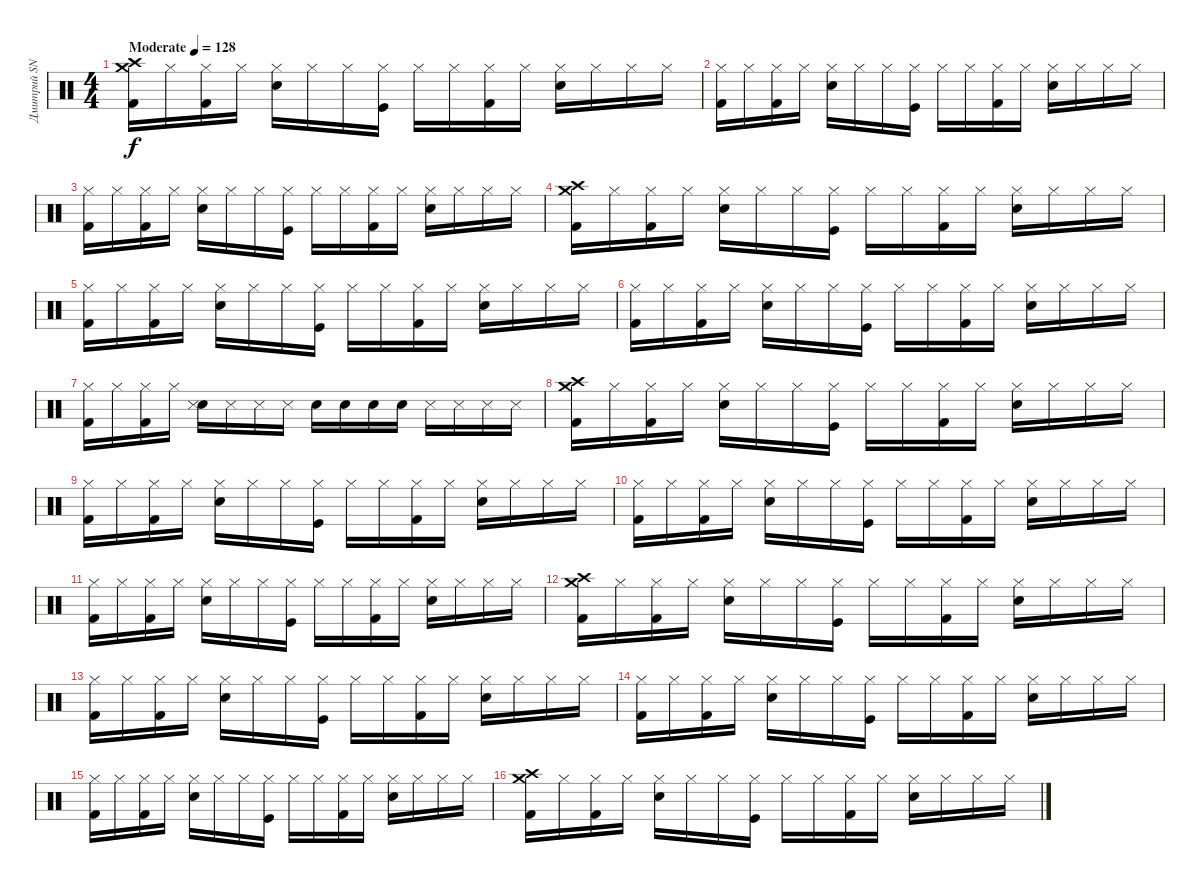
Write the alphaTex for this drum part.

\track ("Дмитрий SNAKE Хакимов (ударные)" "Дмитрий SN") {instrument percussion}
\staff {score}
\articulation defaults
\ts (4 4)
\tempo (128 "Moderate")
\clef neutral
\ks c
("Crash high (hit)" "Crash medium (hit)" "Kick (hit) 2").16{dy f} "Hi-Hat (closed)".16 ("Hi-Hat (closed)" "Kick (hit) 2").16 "Hi-Hat (closed)".16 ("Hi-Hat (closed)" "Snare (hit) 2").16 "Hi-Hat (closed)".16 "Hi-Hat (closed)".16 ("Hi-Hat (closed)" "Kick (hit)").16 "Hi-Hat (closed)".16 "Hi-Hat (closed)".16 ("Hi-Hat (closed)" "Kick (hit) 2").16 "Hi-Hat (closed)".16 ("Hi-Hat (closed)" "Snare (hit) 2").16 "Hi-Hat (closed)".16 "Hi-Hat (closed)".16 "Hi-Hat (closed)".16 |
("Hi-Hat (closed)" "Kick (hit) 2").16 "Hi-Hat (closed)".16 ("Hi-Hat (closed)" "Kick (hit) 2").16 "Hi-Hat (closed)".16 ("Hi-Hat (closed)" "Snare (hit) 2").16 "Hi-Hat (closed)".16 "Hi-Hat (closed)".16 ("Hi-Hat (closed)" "Kick (hit)").16 "Hi-Hat (closed)".16 "Hi-Hat (closed)".16 ("Hi-Hat (closed)" "Kick (hit) 2").16 "Hi-Hat (closed)".16 ("Hi-Hat (closed)" "Snare (hit) 2").16 "Hi-Hat (closed)".16 "Hi-Hat (closed)".16 "Hi-Hat (closed)".16 |
("Hi-Hat (closed)" "Kick (hit) 2").16 "Hi-Hat (closed)".16 ("Hi-Hat (closed)" "Kick (hit) 2").16 "Hi-Hat (closed)".16 ("Hi-Hat (closed)" "Snare (hit) 2").16 "Hi-Hat (closed)".16 "Hi-Hat (closed)".16 ("Hi-Hat (closed)" "Kick (hit)").16 "Hi-Hat (closed)".16 "Hi-Hat (closed)".16 ("Hi-Hat (closed)" "Kick (hit) 2").16 "Hi-Hat (closed)".16 ("Hi-Hat (closed)" "Snare (hit) 2").16 "Hi-Hat (closed)".16 "Hi-Hat (closed)".16 "Hi-Hat (closed)".16 |
("Crash high (hit)" "Crash medium (hit)" "Kick (hit) 2").16 "Hi-Hat (closed)".16 ("Hi-Hat (closed)" "Kick (hit) 2").16 "Hi-Hat (closed)".16 ("Hi-Hat (closed)" "Snare (hit) 2").16 "Hi-Hat (closed)".16 "Hi-Hat (closed)".16 ("Hi-Hat (closed)" "Kick (hit)").16 "Hi-Hat (closed)".16 "Hi-Hat (closed)".16 ("Hi-Hat (closed)" "Kick (hit) 2").16 "Hi-Hat (closed)".16 ("Hi-Hat (closed)" "Snare (hit) 2").16 "Hi-Hat (closed)".16 "Hi-Hat (closed)".16 "Hi-Hat (closed)".16 |
("Hi-Hat (closed)" "Kick (hit) 2").16 "Hi-Hat (closed)".16 ("Hi-Hat (closed)" "Kick (hit) 2").16 "Hi-Hat (closed)".16 ("Hi-Hat (closed)" "Snare (hit) 2").16 "Hi-Hat (closed)".16 "Hi-Hat (closed)".16 ("Hi-Hat (closed)" "Kick (hit)").16 "Hi-Hat (closed)".16 "Hi-Hat (closed)".16 ("Hi-Hat (closed)" "Kick (hit) 2").16 "Hi-Hat (closed)".16 ("Hi-Hat (closed)" "Snare (hit) 2").16 "Hi-Hat (closed)".16 "Hi-Hat (closed)".16 "Hi-Hat (closed)".16 |
("Hi-Hat (closed)" "Kick (hit) 2").16 "Hi-Hat (closed)".16 ("Hi-Hat (closed)" "Kick (hit) 2").16 "Hi-Hat (closed)".16 ("Hi-Hat (closed)" "Snare (hit) 2").16 "Hi-Hat (closed)".16 "Hi-Hat (closed)".16 ("Hi-Hat (closed)" "Kick (hit)").16 "Hi-Hat (closed)".16 "Hi-Hat (closed)".16 ("Hi-Hat (closed)" "Kick (hit) 2").16 "Hi-Hat (closed)".16 ("Hi-Hat (closed)" "Snare (hit) 2").16 "Hi-Hat (closed)".16 "Hi-Hat (closed)".16 "Hi-Hat (closed)".16 |
("Hi-Hat (closed)" "Kick (hit) 2").16 "Hi-Hat (closed)".16 ("Hi-Hat (closed)" "Kick (hit) 2").16 "Hi-Hat (closed)".16 ("Snare (hit) 2" "Snare (side stick) 3").16 "Snare (side stick) 3".16 "Snare (side stick) 3".16 "Snare (side stick) 3".16 "Electric Snare (hit)".16 "Electric Snare (hit)".16 "Electric Snare (hit)".16 "Electric Snare (hit)".16 "Snare (side stick) 3".16 "Snare (side stick) 3".16 "Snare (side stick) 3".16 "Snare (side stick) 3".16 |
("Crash high (hit)" "Crash medium (hit)" "Kick (hit) 2").16 "Hi-Hat (closed)".16 ("Hi-Hat (closed)" "Kick (hit) 2").16 "Hi-Hat (closed)".16 ("Hi-Hat (closed)" "Snare (hit) 2").16 "Hi-Hat (closed)".16 "Hi-Hat (closed)".16 ("Hi-Hat (closed)" "Kick (hit)").16 "Hi-Hat (closed)".16 "Hi-Hat (closed)".16 ("Hi-Hat (closed)" "Kick (hit) 2").16 "Hi-Hat (closed)".16 ("Hi-Hat (closed)" "Snare (hit) 2").16 "Hi-Hat (closed)".16 "Hi-Hat (closed)".16 "Hi-Hat (closed)".16 |
("Hi-Hat (closed)" "Kick (hit) 2").16 "Hi-Hat (closed)".16 ("Hi-Hat (closed)" "Kick (hit) 2").16 "Hi-Hat (closed)".16 ("Hi-Hat (closed)" "Snare (hit) 2").16 "Hi-Hat (closed)".16 "Hi-Hat (closed)".16 ("Hi-Hat (closed)" "Kick (hit)").16 "Hi-Hat (closed)".16 "Hi-Hat (closed)".16 ("Hi-Hat (closed)" "Kick (hit) 2").16 "Hi-Hat (closed)".16 ("Hi-Hat (closed)" "Snare (hit) 2").16 "Hi-Hat (closed)".16 "Hi-Hat (closed)".16 "Hi-Hat (closed)".16 |
("Hi-Hat (closed)" "Kick (hit) 2").16 "Hi-Hat (closed)".16 ("Hi-Hat (closed)" "Kick (hit) 2").16 "Hi-Hat (closed)".16 ("Hi-Hat (closed)" "Snare (hit) 2").16 "Hi-Hat (closed)".16 "Hi-Hat (closed)".16 ("Hi-Hat (closed)" "Kick (hit)").16 "Hi-Hat (closed)".16 "Hi-Hat (closed)".16 ("Hi-Hat (closed)" "Kick (hit) 2").16 "Hi-Hat (closed)".16 ("Hi-Hat (closed)" "Snare (hit) 2").16 "Hi-Hat (closed)".16 "Hi-Hat (closed)".16 "Hi-Hat (closed)".16 |
("Hi-Hat (closed)" "Kick (hit) 2").16 "Hi-Hat (closed)".16 ("Hi-Hat (closed)" "Kick (hit) 2").16 "Hi-Hat (closed)".16 ("Hi-Hat (closed)" "Snare (hit) 2").16 "Hi-Hat (closed)".16 "Hi-Hat (closed)".16 ("Hi-Hat (closed)" "Kick (hit)").16 "Hi-Hat (closed)".16 "Hi-Hat (closed)".16 ("Hi-Hat (closed)" "Kick (hit) 2").16 "Hi-Hat (closed)".16 ("Hi-Hat (closed)" "Snare (hit) 2").16 "Hi-Hat (closed)".16 "Hi-Hat (closed)".16 "Hi-Hat (closed)".16 |
("Crash high (hit)" "Crash medium (hit)" "Kick (hit) 2").16 "Hi-Hat (closed)".16 ("Hi-Hat (closed)" "Kick (hit) 2").16 "Hi-Hat (closed)".16 ("Hi-Hat (closed)" "Snare (hit) 2").16 "Hi-Hat (closed)".16 "Hi-Hat (closed)".16 ("Hi-Hat (closed)" "Kick (hit)").16 "Hi-Hat (closed)".16 "Hi-Hat (closed)".16 ("Hi-Hat (closed)" "Kick (hit) 2").16 "Hi-Hat (closed)".16 ("Hi-Hat (closed)" "Snare (hit) 2").16 "Hi-Hat (closed)".16 "Hi-Hat (closed)".16 "Hi-Hat (closed)".16 |
("Hi-Hat (closed)" "Kick (hit) 2").16 "Hi-Hat (closed)".16 ("Hi-Hat (closed)" "Kick (hit) 2").16 "Hi-Hat (closed)".16 ("Hi-Hat (closed)" "Snare (hit) 2").16 "Hi-Hat (closed)".16 "Hi-Hat (closed)".16 ("Hi-Hat (closed)" "Kick (hit)").16 "Hi-Hat (closed)".16 "Hi-Hat (closed)".16 ("Hi-Hat (closed)" "Kick (hit) 2").16 "Hi-Hat (closed)".16 ("Hi-Hat (closed)" "Snare (hit) 2").16 "Hi-Hat (closed)".16 "Hi-Hat (closed)".16 "Hi-Hat (closed)".16 |
("Hi-Hat (closed)" "Kick (hit) 2").16 "Hi-Hat (closed)".16 ("Hi-Hat (closed)" "Kick (hit) 2").16 "Hi-Hat (closed)".16 ("Hi-Hat (closed)" "Snare (hit) 2").16 "Hi-Hat (closed)".16 "Hi-Hat (closed)".16 ("Hi-Hat (closed)" "Kick (hit)").16 "Hi-Hat (closed)".16 "Hi-Hat (closed)".16 ("Hi-Hat (closed)" "Kick (hit) 2").16 "Hi-Hat (closed)".16 ("Hi-Hat (closed)" "Snare (hit) 2").16 "Hi-Hat (closed)".16 "Hi-Hat (closed)".16 "Hi-Hat (closed)".16 |
("Hi-Hat (closed)" "Kick (hit) 2").16 "Hi-Hat (closed)".16 ("Hi-Hat (closed)" "Kick (hit) 2").16 "Hi-Hat (closed)".16 ("Hi-Hat (closed)" "Snare (hit) 2").16 "Hi-Hat (closed)".16 "Hi-Hat (closed)".16 ("Hi-Hat (closed)" "Kick (hit)").16 "Hi-Hat (closed)".16 "Hi-Hat (closed)".16 ("Hi-Hat (closed)" "Kick (hit) 2").16 "Hi-Hat (closed)".16 ("Hi-Hat (closed)" "Snare (hit) 2").16 "Hi-Hat (closed)".16 "Hi-Hat (closed)".16 "Hi-Hat (closed)".16 |
("Crash high (hit)" "Crash medium (hit)" "Kick (hit) 2").16 "Hi-Hat (closed)".16 ("Hi-Hat (closed)" "Kick (hit) 2").16 "Hi-Hat (closed)".16 ("Hi-Hat (closed)" "Snare (hit) 2").16 "Hi-Hat (closed)".16 "Hi-Hat (closed)".16 ("Hi-Hat (closed)" "Kick (hit)").16 "Hi-Hat (closed)".16 "Hi-Hat (closed)".16 ("Hi-Hat (closed)" "Kick (hit) 2").16 "Hi-Hat (closed)".16 ("Hi-Hat (closed)" "Snare (hit) 2").16 "Hi-Hat (closed)".16 "Hi-Hat (closed)".16 "Hi-Hat (closed)".16
